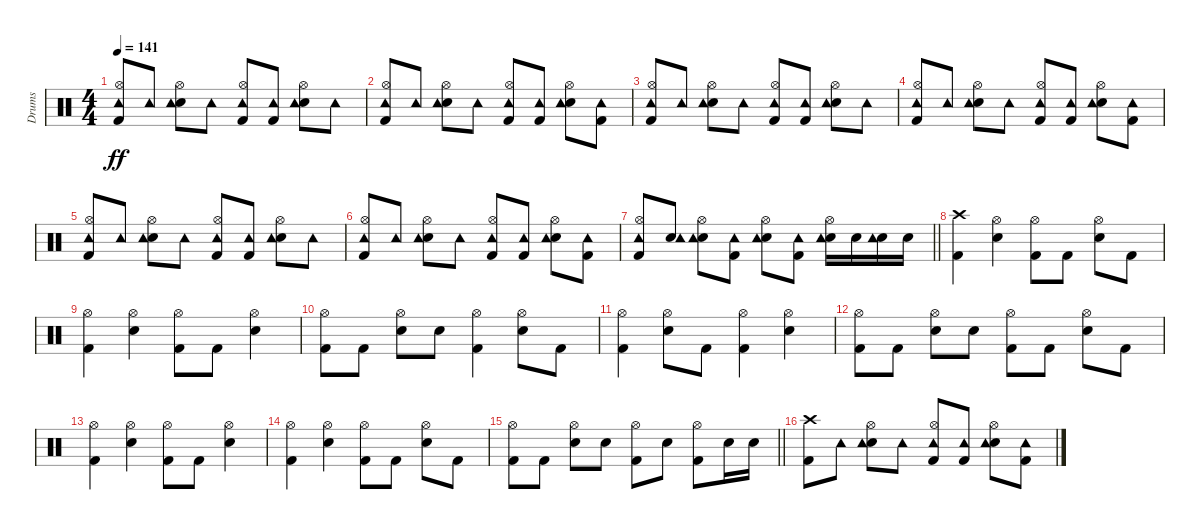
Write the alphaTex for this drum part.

\track ("Drums" "Drums") {instrument percussion}
\staff {score}
\articulation defaults
\ts (4 4)
\tempo 141
\clef neutral
\ks c
("Kick (hit) 2" "Hi-Hat (open)" "Tambourine (hit)").8{dy ff} "Tambourine (hit)".8 ("Snare (hit) 2" "Hi-Hat (open)" "Tambourine (hit)").8 "Tambourine (hit)".8 ("Kick (hit) 2" "Hi-Hat (open)" "Tambourine (hit)").8 ("Kick (hit) 2" "Tambourine (hit)").8 ("Snare (hit) 2" "Hi-Hat (open)" "Tambourine (hit)").8 "Tambourine (hit)".8 |
("Kick (hit) 2" "Hi-Hat (open)" "Tambourine (hit)").8 "Tambourine (hit)".8 ("Snare (hit) 2" "Hi-Hat (open)" "Tambourine (hit)").8 "Tambourine (hit)".8 ("Kick (hit) 2" "Hi-Hat (open)" "Tambourine (hit)").8 ("Kick (hit) 2" "Tambourine (hit)").8 ("Snare (hit) 2" "Hi-Hat (open)" "Tambourine (hit)").8 ("Kick (hit) 2" "Tambourine (hit)").8 |
("Kick (hit) 2" "Hi-Hat (open)" "Tambourine (hit)").8 "Tambourine (hit)".8 ("Snare (hit) 2" "Hi-Hat (open)" "Tambourine (hit)").8 "Tambourine (hit)".8 ("Kick (hit) 2" "Hi-Hat (open)" "Tambourine (hit)").8 ("Kick (hit) 2" "Tambourine (hit)").8 ("Snare (hit) 2" "Hi-Hat (open)" "Tambourine (hit)").8 "Tambourine (hit)".8 |
("Kick (hit) 2" "Hi-Hat (open)" "Tambourine (hit)").8 "Tambourine (hit)".8 ("Snare (hit) 2" "Hi-Hat (open)" "Tambourine (hit)").8 "Tambourine (hit)".8 ("Kick (hit) 2" "Hi-Hat (open)" "Tambourine (hit)").8 ("Kick (hit) 2" "Tambourine (hit)").8 ("Snare (hit) 2" "Hi-Hat (open)" "Tambourine (hit)").8 ("Kick (hit) 2" "Tambourine (hit)").8 |
("Kick (hit) 2" "Hi-Hat (open)" "Tambourine (hit)").8 "Tambourine (hit)".8 ("Snare (hit) 2" "Hi-Hat (open)" "Tambourine (hit)").8 "Tambourine (hit)".8 ("Kick (hit) 2" "Hi-Hat (open)" "Tambourine (hit)").8 ("Kick (hit) 2" "Tambourine (hit)").8 ("Snare (hit) 2" "Hi-Hat (open)" "Tambourine (hit)").8 "Tambourine (hit)".8 |
("Kick (hit) 2" "Hi-Hat (open)" "Tambourine (hit)").8 "Tambourine (hit)".8 ("Snare (hit) 2" "Hi-Hat (open)" "Tambourine (hit)").8 "Tambourine (hit)".8 ("Kick (hit) 2" "Hi-Hat (open)" "Tambourine (hit)").8 ("Kick (hit) 2" "Tambourine (hit)").8 ("Snare (hit) 2" "Hi-Hat (open)" "Tambourine (hit)").8 ("Kick (hit) 2" "Tambourine (hit)").8 |
\barLineRight lightlight
("Kick (hit) 2" "Hi-Hat (open)" "Tambourine (hit)").8 ("Snare (hit) 2" "Tambourine (hit)").8 ("Snare (hit) 2" "Hi-Hat (open)" "Tambourine (hit)").8 ("Kick (hit) 2" "Tambourine (hit)").8 ("Snare (hit) 2" "Hi-Hat (open)" "Tambourine (hit)").8 ("Kick (hit) 2" "Tambourine (hit)").8 ("Snare (hit) 2" "Hi-Hat (open)" "Tambourine (hit)").16 "Snare (hit) 2".16 ("Snare (hit) 2" "Tambourine (hit)").16 "Snare (hit) 2".16 |
("Kick (hit) 2" "Crash high (hit)").4 ("Snare (hit) 2" "Hi-Hat (open)").4 ("Kick (hit) 2" "Hi-Hat (open)").8 "Kick (hit) 2".8 ("Snare (hit) 2" "Hi-Hat (open)").8 "Kick (hit) 2".8 |
("Kick (hit) 2" "Hi-Hat (open)").4 ("Snare (hit) 2" "Hi-Hat (open)").4 ("Kick (hit) 2" "Hi-Hat (open)").8 "Kick (hit) 2".8 ("Snare (hit) 2" "Hi-Hat (open)").4 |
("Kick (hit) 2" "Hi-Hat (open)").8 "Kick (hit) 2".8 ("Snare (hit) 2" "Hi-Hat (open)").8 "Snare (hit) 2".8 ("Kick (hit) 2" "Hi-Hat (open)").4 ("Snare (hit) 2" "Hi-Hat (open)").8 "Kick (hit) 2".8 |
("Kick (hit) 2" "Hi-Hat (open)").4 ("Snare (hit) 2" "Hi-Hat (open)").8 "Kick (hit) 2".8 ("Kick (hit) 2" "Hi-Hat (open)").4 ("Snare (hit) 2" "Hi-Hat (open)").4 |
("Kick (hit) 2" "Hi-Hat (open)").8 "Kick (hit) 2".8 ("Snare (hit) 2" "Hi-Hat (open)").8 "Snare (hit) 2".8 ("Kick (hit) 2" "Hi-Hat (open)").8 "Kick (hit) 2".8 ("Snare (hit) 2" "Hi-Hat (open)").8 "Kick (hit) 2".8 |
("Kick (hit) 2" "Hi-Hat (open)").4 ("Snare (hit) 2" "Hi-Hat (open)").4 ("Kick (hit) 2" "Hi-Hat (open)").8 "Kick (hit) 2".8 ("Snare (hit) 2" "Hi-Hat (open)").4 |
("Kick (hit) 2" "Hi-Hat (open)").4 ("Snare (hit) 2" "Hi-Hat (open)").4 ("Kick (hit) 2" "Hi-Hat (open)").8 "Kick (hit) 2".8 ("Snare (hit) 2" "Hi-Hat (open)").8 "Kick (hit) 2".8 |
\barLineRight lightlight
("Kick (hit) 2" "Hi-Hat (open)").8 "Kick (hit) 2".8 ("Snare (hit) 2" "Hi-Hat (open)").8 "Snare (hit) 2".8 ("Kick (hit) 2" "Hi-Hat (open)").8 "Snare (hit) 2".8 ("Kick (hit) 2" "Hi-Hat (open)").8 "Snare (hit) 2".16 "Snare (hit) 2".16 |
("Kick (hit) 2" "Crash high (hit)").8 "Tambourine (hit)".8 ("Snare (hit) 2" "Hi-Hat (open)" "Tambourine (hit)").8 "Tambourine (hit)".8 ("Kick (hit) 2" "Hi-Hat (open)" "Tambourine (hit)").8 ("Kick (hit) 2" "Tambourine (hit)").8 ("Snare (hit) 2" "Hi-Hat (open)" "Tambourine (hit)").8 ("Kick (hit) 2" "Tambourine (hit)").8
